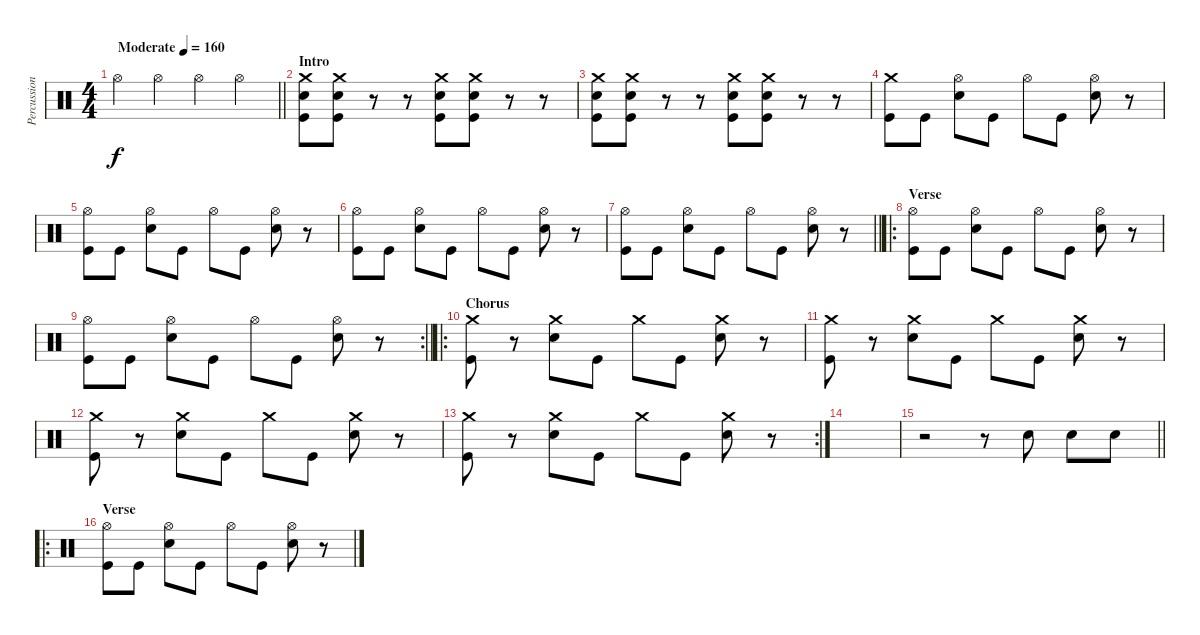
\track ("Percussion" "Percussion") {instrument percussion}
\staff {score}
\articulation defaults
\ts (4 4)
\tempo (160 "Moderate")
\clef neutral
\barLineRight lightlight
\ks c "Hi-Hat (open)".4{dy f} "Hi-Hat (open)".4 "Hi-Hat (open)".4 "Hi-Hat (open)".4
|
\section ("" "Intro")
("Crash medium (hit)" "Snare (hit) 2" "Kick (hit)").8 ("Crash medium (hit)" "Snare (hit) 2" "Kick (hit)").8 r.8 r.8 ("Crash medium (hit)" "Snare (hit) 2" "Kick (hit)").8 ("Crash medium (hit)" "Snare (hit) 2" "Kick (hit)").8 r.8 r.8 |
("Crash medium (hit)" "Snare (hit) 2" "Kick (hit)").8 ("Crash medium (hit)" "Snare (hit) 2" "Kick (hit)").8 r.8 r.8 ("Crash medium (hit)" "Snare (hit) 2" "Kick (hit)").8 ("Crash medium (hit)" "Snare (hit) 2" "Kick (hit)").8 r.8 r.8 |
("Crash medium (hit)" "Kick (hit)").8 "Kick (hit)".8 ("Hi-Hat (open)" "Snare (hit) 2").8 "Kick (hit)".8 "Hi-Hat (open)".8 "Kick (hit)".8 ("Hi-Hat (open)" "Snare (hit) 2").8 r.8 |
("Hi-Hat (open)" "Kick (hit)").8 "Kick (hit)".8 ("Hi-Hat (open)" "Snare (hit) 2").8 "Kick (hit)".8 "Hi-Hat (open)".8 "Kick (hit)".8 ("Hi-Hat (open)" "Snare (hit) 2").8 r.8 |
("Hi-Hat (open)" "Kick (hit)").8 "Kick (hit)".8 ("Hi-Hat (open)" "Snare (hit) 2").8 "Kick (hit)".8 "Hi-Hat (open)".8 "Kick (hit)".8 ("Hi-Hat (open)" "Snare (hit) 2").8 r.8 |
\barLineRight lightlight
("Hi-Hat (open)" "Kick (hit)").8 "Kick (hit)".8 ("Hi-Hat (open)" "Snare (hit) 2").8 "Kick (hit)".8 "Hi-Hat (open)".8 "Kick (hit)".8 ("Hi-Hat (open)" "Snare (hit) 2").8 r.8 |
\ro
\section ("" "Verse")
("Hi-Hat (open)" "Kick (hit)").8 "Kick (hit)".8 ("Hi-Hat (open)" "Snare (hit) 2").8 "Kick (hit)".8 "Hi-Hat (open)".8 "Kick (hit)".8 ("Hi-Hat (open)" "Snare (hit) 2").8 r.8 |
\rc 2
\barLineRight lightlight
("Hi-Hat (open)" "Kick (hit)").8 "Kick (hit)".8 ("Hi-Hat (open)" "Snare (hit) 2").8 "Kick (hit)".8 "Hi-Hat (open)".8 "Kick (hit)".8 ("Hi-Hat (open)" "Snare (hit) 2").8 r.8 |
\ro
\section ("" "Chorus")
("Crash medium (hit)" "Kick (hit)").8 r.8 ("Crash medium (hit)" "Snare (hit) 2").8 "Kick (hit)".8 "Crash medium (hit)".8 "Kick (hit)".8 ("Crash medium (hit)" "Snare (hit) 2").8 r.8 |
("Crash medium (hit)" "Kick (hit)").8 r.8 ("Crash medium (hit)" "Snare (hit) 2").8 "Kick (hit)".8 "Crash medium (hit)".8 "Kick (hit)".8 ("Crash medium (hit)" "Snare (hit) 2").8 r.8 |
("Crash medium (hit)" "Kick (hit)").8 r.8 ("Crash medium (hit)" "Snare (hit) 2").8 "Kick (hit)".8 "Crash medium (hit)".8 "Kick (hit)".8 ("Crash medium (hit)" "Snare (hit) 2").8 r.8 |
\rc 2
("Crash medium (hit)" "Kick (hit)").8 r.8 ("Crash medium (hit)" "Snare (hit) 2").8 "Kick (hit)".8 "Crash medium (hit)".8 "Kick (hit)".8 ("Crash medium (hit)" "Snare (hit) 2").8 r.8 |
|
\barLineRight lightlight
r.2 r.8 "Snare (hit) 2".8 "Snare (hit) 2".8 "Snare (hit) 2".8 |
\ro
\section ("" "Verse")
("Hi-Hat (open)" "Kick (hit)").8 "Kick (hit)".8 ("Hi-Hat (open)" "Snare (hit) 2").8 "Kick (hit)".8 "Hi-Hat (open)".8 "Kick (hit)".8 ("Hi-Hat (open)" "Snare (hit) 2").8 r.8
